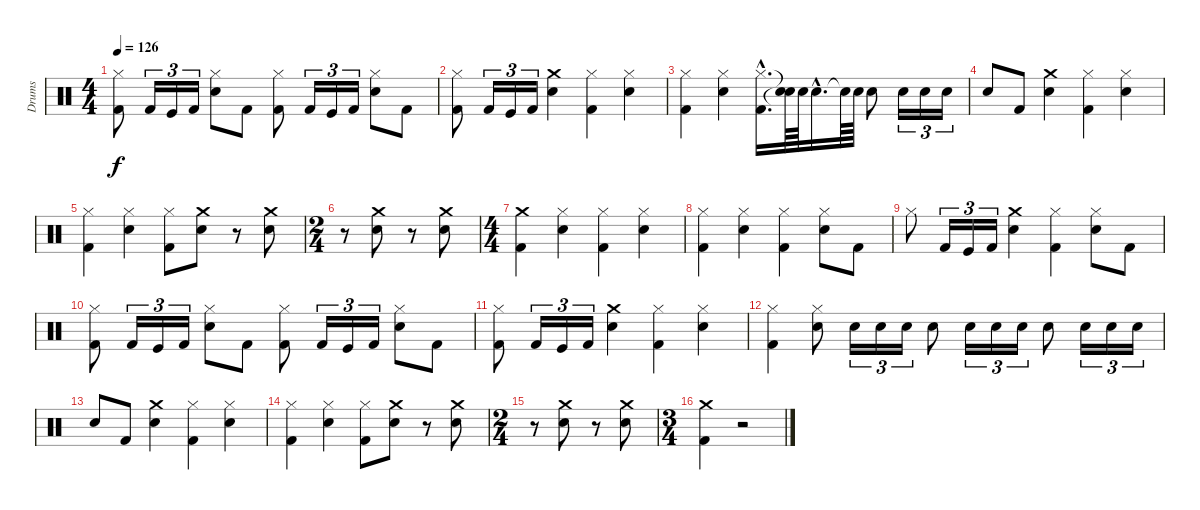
\track ("Drums" "Drums") {instrument percussion}
\staff {score}
\articulation defaults
\ts (4 4)
\tempo 126
\clef neutral
\ks c
("Kick (hit) 2" "Hi-Hat (closed)").8{dy f} "Kick (hit) 2".16{tu (3 2)} "Kick (hit)".16{tu (3 2)} "Kick (hit) 2".16{tu (3 2)} ("Snare (hit) 2" "Hi-Hat (closed)").8 "Kick (hit) 2".8 ("Kick (hit) 2" "Hi-Hat (closed)").8 "Kick (hit) 2".16{tu (3 2)} "Kick (hit)".16{tu (3 2)} "Kick (hit) 2".16{tu (3 2)} ("Snare (hit) 2" "Hi-Hat (closed)").8 "Kick (hit) 2".8 |
("Hi-Hat (closed)" "Kick (hit) 2").8 "Kick (hit) 2".16{tu (3 2)} "Kick (hit)".16{tu (3 2)} "Kick (hit) 2".16{tu (3 2)} ("Snare (hit) 2" "Crash medium (hit)").4 ("Kick (hit) 2" "Hi-Hat (closed)").4 ("Hi-Hat (closed)" "Snare (hit) 2").4 |
("Kick (hit) 2" "Hi-Hat (closed)").4 ("Snare (hit) 2" "Hi-Hat (closed)").4 ("Hi-Hat (closed)"{hac} "Kick (hit) 2"{hac}).16{d} ("Snare (hit)"{t} "Snare (hit)"{t}).64 "Snare (hit) 2".64 "Snare (hit) 2"{hac}.16{d} "Snare (hit)"{t}.64 "Snare (hit) 2".64 "Snare (hit) 2".8 "Snare (hit) 2".16{tu (3 2)} "Snare (hit) 2".16{tu (3 2)} "Snare (hit) 2".16{tu (3 2)} |
"Snare (hit) 2".8 "Kick (hit) 2".8 ("Crash medium (hit)" "Snare (hit) 2").4 ("Kick (hit) 2" "Hi-Hat (closed)").4 ("Snare (hit) 2" "Hi-Hat (closed)").4 |
("Kick (hit) 2" "Hi-Hat (closed)").4 ("Snare (hit) 2" "Hi-Hat (closed)").4 ("Kick (hit) 2" "Hi-Hat (closed)").8 ("Crash medium (hit)" "Snare (hit) 2").8 r.8 ("Snare (hit) 2" "Crash medium (hit)").8 |
\ts (2 4)
r.8 ("Snare (hit) 2" "Crash medium (hit)").8 r.8 ("Snare (hit) 2" "Crash medium (hit)").8 |
\ts (4 4)
("Kick (hit) 2" "Crash medium (hit)").4 ("Hi-Hat (closed)" "Snare (hit) 2").4 ("Hi-Hat (closed)" "Kick (hit) 2").4 ("Snare (hit) 2" "Hi-Hat (closed)").4 |
("Hi-Hat (closed)" "Kick (hit) 2").4 ("Hi-Hat (closed)" "Snare (hit) 2").4 ("Hi-Hat (closed)" "Kick (hit) 2").4 ("Hi-Hat (closed)" "Snare (hit) 2").8 "Kick (hit) 2".8 |
"Hi-Hat (closed)".8 "Kick (hit) 2".16{tu (3 2)} "Kick (hit)".16{tu (3 2)} "Kick (hit) 2".16{tu (3 2)} ("Snare (hit) 2" "Crash medium (hit)").4 ("Hi-Hat (closed)" "Kick (hit) 2").4 ("Snare (hit) 2" "Hi-Hat (closed)").8 "Kick (hit) 2".8 |
("Kick (hit) 2" "Hi-Hat (closed)").8 "Kick (hit) 2".16{tu (3 2)} "Kick (hit)".16{tu (3 2)} "Kick (hit) 2".16{tu (3 2)} ("Snare (hit) 2" "Hi-Hat (closed)").8 "Kick (hit) 2".8 ("Kick (hit) 2" "Hi-Hat (closed)").8 "Kick (hit) 2".16{tu (3 2)} "Kick (hit)".16{tu (3 2)} "Kick (hit) 2".16{tu (3 2)} ("Snare (hit) 2" "Hi-Hat (closed)").8 "Kick (hit) 2".8 |
("Hi-Hat (closed)" "Kick (hit) 2").8 "Kick (hit) 2".16{tu (3 2)} "Kick (hit)".16{tu (3 2)} "Kick (hit) 2".16{tu (3 2)} ("Snare (hit) 2" "Crash medium (hit)").4 ("Kick (hit) 2" "Hi-Hat (closed)").4 ("Hi-Hat (closed)" "Snare (hit) 2").4 |
("Kick (hit) 2" "Hi-Hat (closed)").4 ("Snare (hit) 2" "Hi-Hat (closed)").8 "Snare (hit) 2".16{tu (3 2)} "Snare (hit) 2".16{tu (3 2)} "Snare (hit) 2".16{tu (3 2)} "Snare (hit) 2".8 "Snare (hit) 2".16{tu (3 2)} "Snare (hit) 2".16{tu (3 2)} "Snare (hit) 2".16{tu (3 2)} "Snare (hit) 2".8 "Snare (hit) 2".16{tu (3 2)} "Snare (hit) 2".16{tu (3 2)} "Snare (hit) 2".16{tu (3 2)} |
"Snare (hit) 2".8 "Kick (hit) 2".8 ("Crash medium (hit)" "Snare (hit) 2").4 ("Kick (hit) 2" "Hi-Hat (closed)").4 ("Snare (hit) 2" "Hi-Hat (closed)").4 |
("Kick (hit) 2" "Hi-Hat (closed)").4 ("Snare (hit) 2" "Hi-Hat (closed)").4 ("Kick (hit) 2" "Hi-Hat (closed)").8 ("Crash medium (hit)" "Snare (hit) 2").8 r.8 ("Snare (hit) 2" "Crash medium (hit)").8 |
\ts (2 4)
r.8 ("Snare (hit) 2" "Crash medium (hit)").8 r.8 ("Snare (hit) 2" "Crash medium (hit)").8 |
\ts (3 4)
("Kick (hit) 2" "Crash medium (hit)").4 r.2
